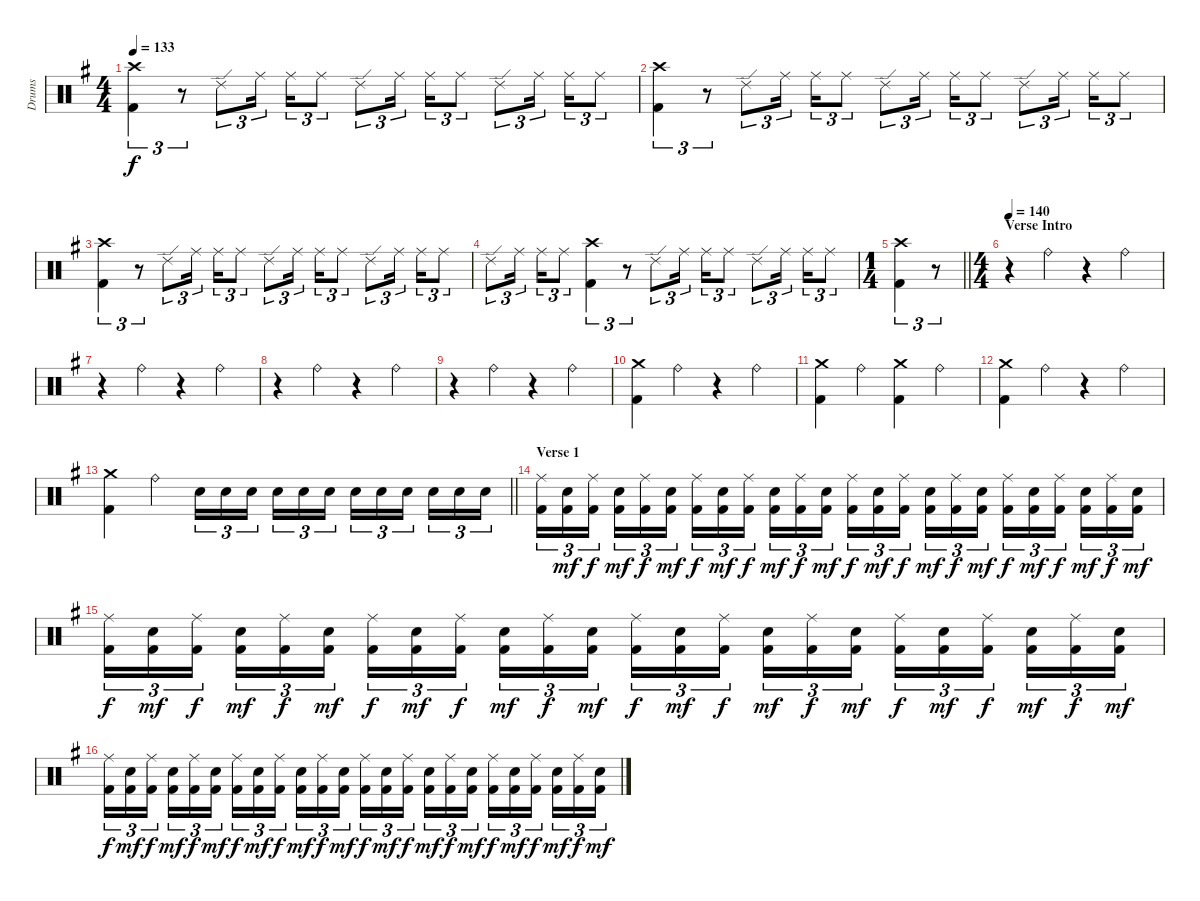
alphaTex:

\track ("Drums" "Drums") {instrument percussion}
\staff {score}
\articulation defaults
\ts (4 4)
\tempo 133
\clef neutral
\ks eminor
("Crash high (hit)" "Kick (hit) 2").4{tu (3 2) dy f} r.8{tu (3 2)} "Ride (edge) 2".8{tu (3 2)} "Ride (middle)".16{tu (3 2) beam splitsecondary} "Ride (middle)".16{tu (3 2)} "Ride (middle)".8{tu (3 2)} "Ride (edge) 2".8{tu (3 2)} "Ride (middle)".16{tu (3 2) beam splitsecondary} "Ride (middle)".16{tu (3 2)} "Ride (middle)".8{tu (3 2)} "Ride (edge) 2".8{tu (3 2)} "Ride (middle)".16{tu (3 2) beam splitsecondary} "Ride (middle)".16{tu (3 2)} "Ride (middle)".8{tu (3 2)} |
("Crash high (hit)" "Kick (hit) 2").4{tu (3 2)} r.8{tu (3 2)} "Ride (edge) 2".8{tu (3 2)} "Ride (middle)".16{tu (3 2) beam splitsecondary} "Ride (middle)".16{tu (3 2)} "Ride (middle)".8{tu (3 2)} "Ride (edge) 2".8{tu (3 2)} "Ride (middle)".16{tu (3 2) beam splitsecondary} "Ride (middle)".16{tu (3 2)} "Ride (middle)".8{tu (3 2)} "Ride (edge) 2".8{tu (3 2)} "Ride (middle)".16{tu (3 2) beam splitsecondary} "Ride (middle)".16{tu (3 2)} "Ride (middle)".8{tu (3 2)} |
("Crash high (hit)" "Kick (hit) 2").4{tu (3 2)} r.8{tu (3 2)} "Ride (edge) 2".8{tu (3 2)} "Ride (middle)".16{tu (3 2) beam splitsecondary} "Ride (middle)".16{tu (3 2)} "Ride (middle)".8{tu (3 2)} "Ride (edge) 2".8{tu (3 2)} "Ride (middle)".16{tu (3 2) beam splitsecondary} "Ride (middle)".16{tu (3 2)} "Ride (middle)".8{tu (3 2)} "Ride (edge) 2".8{tu (3 2)} "Ride (middle)".16{tu (3 2) beam splitsecondary} "Ride (middle)".16{tu (3 2)} "Ride (middle)".8{tu (3 2)} |
"Ride (edge) 2".8{tu (3 2)} "Ride (middle)".16{tu (3 2) beam splitsecondary} "Ride (middle)".16{tu (3 2)} "Ride (middle)".8{tu (3 2)} ("Crash high (hit)" "Kick (hit) 2").4{tu (3 2)} r.8{tu (3 2)} "Ride (edge) 2".8{tu (3 2)} "Ride (middle)".16{tu (3 2) beam splitsecondary} "Ride (middle)".16{tu (3 2)} "Ride (middle)".8{tu (3 2)} "Ride (edge) 2".8{tu (3 2)} "Ride (middle)".16{tu (3 2) beam splitsecondary} "Ride (middle)".16{tu (3 2)} "Ride (middle)".8{tu (3 2)} |
\ts (1 4)
\barLineRight lightlight
("Crash high (hit)" "Kick (hit) 2").4{tu (3 2)} r.8{tu (3 2)} |
\ts (4 4)
\section ("" "Verse Intro")
\tempo 140
r.4 "Ride (bell)".4 r.4 "Ride (bell)".4 |
r.4 "Ride (bell)".4 r.4 "Ride (bell)".4 |
r.4 "Ride (bell)".4 r.4 "Ride (bell)".4 |
r.4 "Ride (bell)".4 r.4 "Ride (bell)".4 |
("Crash medium (hit)" "Kick (hit) 2").4 "Ride (bell)".4 r.4 "Ride (bell)".4 |
("Crash medium (hit)" "Kick (hit) 2").4 "Ride (bell)".4 ("Crash medium (hit)" "Kick (hit) 2").4 "Ride (bell)".4 |
("Crash medium (hit)" "Kick (hit) 2").4 "Ride (bell)".4 r.4 "Ride (bell)".4 |
\barLineRight lightlight
("Crash medium (hit)" "Kick (hit) 2").4 "Ride (bell)".4 "Electric Snare (hit)".16{tu (3 2)} "Electric Snare (hit)".16{tu (3 2)} "Electric Snare (hit)".16{tu (3 2) beam splitsecondary} "Electric Snare (hit)".16{tu (3 2)} "Electric Snare (hit)".16{tu (3 2)} "Electric Snare (hit)".16{tu (3 2)} "Electric Snare (hit)".16{tu (3 2)} "Electric Snare (hit)".16{tu (3 2)} "Electric Snare (hit)".16{tu (3 2) beam splitsecondary} "Electric Snare (hit)".16{tu (3 2)} "Electric Snare (hit)".16{tu (3 2)} "Electric Snare (hit)".16{tu (3 2)} |
\section ("" "Verse 1")
("Ride (middle)" "Kick (hit) 2").16{tu (3 2)} ("Electric Snare (hit)" "Kick (hit) 2").16{tu (3 2) dy mf} ("Ride (middle)" "Kick (hit) 2").16{tu (3 2) dy f beam splitsecondary} ("Electric Snare (hit)" "Kick (hit) 2").16{tu (3 2) dy mf} ("Ride (middle)" "Kick (hit) 2").16{tu (3 2) dy f} ("Electric Snare (hit)" "Kick (hit) 2").16{tu (3 2) dy mf} ("Ride (middle)" "Kick (hit) 2").16{tu (3 2) dy f} ("Electric Snare (hit)" "Kick (hit) 2").16{tu (3 2) dy mf} ("Ride (middle)" "Kick (hit) 2").16{tu (3 2) dy f beam splitsecondary} ("Electric Snare (hit)" "Kick (hit) 2").16{tu (3 2) dy mf} ("Ride (middle)" "Kick (hit) 2").16{tu (3 2) dy f} ("Electric Snare (hit)" "Kick (hit) 2").16{tu (3 2) dy mf} ("Ride (middle)" "Kick (hit) 2").16{tu (3 2) dy f} ("Electric Snare (hit)" "Kick (hit) 2").16{tu (3 2) dy mf} ("Ride (middle)" "Kick (hit) 2").16{tu (3 2) dy f beam splitsecondary} ("Electric Snare (hit)" "Kick (hit) 2").16{tu (3 2) dy mf} ("Ride (middle)" "Kick (hit) 2").16{tu (3 2) dy f} ("Electric Snare (hit)" "Kick (hit) 2").16{tu (3 2) dy mf} ("Ride (middle)" "Kick (hit) 2").16{tu (3 2) dy f} ("Electric Snare (hit)" "Kick (hit) 2").16{tu (3 2) dy mf} ("Ride (middle)" "Kick (hit) 2").16{tu (3 2) dy f beam splitsecondary} ("Electric Snare (hit)" "Kick (hit) 2").16{tu (3 2) dy mf} ("Ride (middle)" "Kick (hit) 2").16{tu (3 2) dy f} ("Electric Snare (hit)" "Kick (hit) 2").16{tu (3 2) dy mf} |
("Ride (middle)" "Kick (hit) 2").16{tu (3 2) dy f} ("Electric Snare (hit)" "Kick (hit) 2").16{tu (3 2) dy mf} ("Ride (middle)" "Kick (hit) 2").16{tu (3 2) dy f beam splitsecondary} ("Electric Snare (hit)" "Kick (hit) 2").16{tu (3 2) dy mf} ("Ride (middle)" "Kick (hit) 2").16{tu (3 2) dy f} ("Electric Snare (hit)" "Kick (hit) 2").16{tu (3 2) dy mf} ("Ride (middle)" "Kick (hit) 2").16{tu (3 2) dy f} ("Electric Snare (hit)" "Kick (hit) 2").16{tu (3 2) dy mf} ("Ride (middle)" "Kick (hit) 2").16{tu (3 2) dy f beam splitsecondary} ("Electric Snare (hit)" "Kick (hit) 2").16{tu (3 2) dy mf} ("Ride (middle)" "Kick (hit) 2").16{tu (3 2) dy f} ("Electric Snare (hit)" "Kick (hit) 2").16{tu (3 2) dy mf} ("Ride (middle)" "Kick (hit) 2").16{tu (3 2) dy f} ("Electric Snare (hit)" "Kick (hit) 2").16{tu (3 2) dy mf} ("Ride (middle)" "Kick (hit) 2").16{tu (3 2) dy f beam splitsecondary} ("Electric Snare (hit)" "Kick (hit) 2").16{tu (3 2) dy mf} ("Ride (middle)" "Kick (hit) 2").16{tu (3 2) dy f} ("Electric Snare (hit)" "Kick (hit) 2").16{tu (3 2) dy mf} ("Ride (middle)" "Kick (hit) 2").16{tu (3 2) dy f} ("Electric Snare (hit)" "Kick (hit) 2").16{tu (3 2) dy mf} ("Ride (middle)" "Kick (hit) 2").16{tu (3 2) dy f beam splitsecondary} ("Electric Snare (hit)" "Kick (hit) 2").16{tu (3 2) dy mf} ("Ride (middle)" "Kick (hit) 2").16{tu (3 2) dy f} ("Electric Snare (hit)" "Kick (hit) 2").16{tu (3 2) dy mf} |
("Ride (middle)" "Kick (hit) 2").16{tu (3 2) dy f} ("Electric Snare (hit)" "Kick (hit) 2").16{tu (3 2) dy mf} ("Ride (middle)" "Kick (hit) 2").16{tu (3 2) dy f beam splitsecondary} ("Electric Snare (hit)" "Kick (hit) 2").16{tu (3 2) dy mf} ("Ride (middle)" "Kick (hit) 2").16{tu (3 2) dy f} ("Electric Snare (hit)" "Kick (hit) 2").16{tu (3 2) dy mf} ("Ride (middle)" "Kick (hit) 2").16{tu (3 2) dy f} ("Electric Snare (hit)" "Kick (hit) 2").16{tu (3 2) dy mf} ("Ride (middle)" "Kick (hit) 2").16{tu (3 2) dy f beam splitsecondary} ("Electric Snare (hit)" "Kick (hit) 2").16{tu (3 2) dy mf} ("Ride (middle)" "Kick (hit) 2").16{tu (3 2) dy f} ("Electric Snare (hit)" "Kick (hit) 2").16{tu (3 2) dy mf} ("Ride (middle)" "Kick (hit) 2").16{tu (3 2) dy f} ("Electric Snare (hit)" "Kick (hit) 2").16{tu (3 2) dy mf} ("Ride (middle)" "Kick (hit) 2").16{tu (3 2) dy f beam splitsecondary} ("Electric Snare (hit)" "Kick (hit) 2").16{tu (3 2) dy mf} ("Ride (middle)" "Kick (hit) 2").16{tu (3 2) dy f} ("Electric Snare (hit)" "Kick (hit) 2").16{tu (3 2) dy mf} ("Ride (middle)" "Kick (hit) 2").16{tu (3 2) dy f} ("Electric Snare (hit)" "Kick (hit) 2").16{tu (3 2) dy mf} ("Ride (middle)" "Kick (hit) 2").16{tu (3 2) dy f beam splitsecondary} ("Electric Snare (hit)" "Kick (hit) 2").16{tu (3 2) dy mf} ("Ride (middle)" "Kick (hit) 2").16{tu (3 2) dy f} ("Electric Snare (hit)" "Kick (hit) 2").16{tu (3 2) dy mf}
